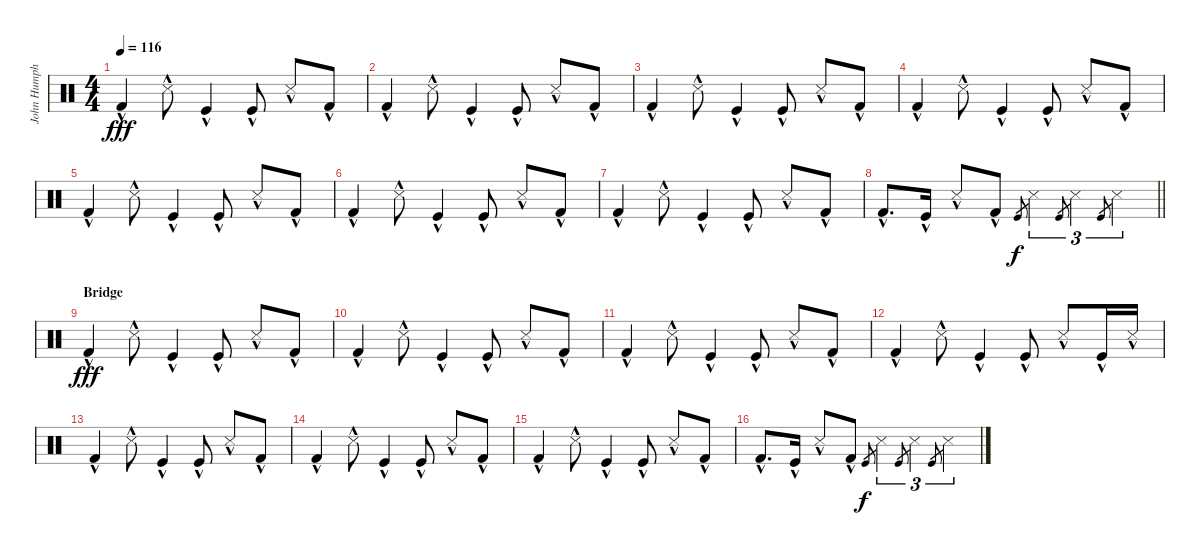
\track ("John Humphrey (Percussions)" "John Humph") {instrument percussion}
\staff {score}
\articulation defaults
\ts (4 4)
\tempo 116
\clef neutral
\ks c "Kick (hit) 2"{hac}.4{dy fff} "Snare (side stick) 3"{hac}.8 "Kick (hit)"{hac}.4 "Kick (hit)"{hac}.8 "Snare (side stick) 3"{hac}.8 "Kick (hit) 2"{hac}.8
|
"Kick (hit) 2"{hac}.4 "Snare (side stick) 3"{hac}.8 "Kick (hit)"{hac}.4 "Kick (hit)"{hac}.8 "Snare (side stick) 3"{hac}.8 "Kick (hit) 2"{hac}.8 |
"Kick (hit) 2"{hac}.4 "Snare (side stick) 3"{hac}.8 "Kick (hit)"{hac}.4 "Kick (hit)"{hac}.8 "Snare (side stick) 3"{hac}.8 "Kick (hit) 2"{hac}.8 |
"Kick (hit) 2"{hac}.4 "Snare (side stick) 3"{hac}.8 "Kick (hit)"{hac}.4 "Kick (hit)"{hac}.8 "Snare (side stick) 3"{hac}.8 "Kick (hit) 2"{hac}.8 |
"Kick (hit) 2"{hac}.4 "Snare (side stick) 3"{hac}.8 "Kick (hit)"{hac}.4 "Kick (hit)"{hac}.8 "Snare (side stick) 3"{hac}.8 "Kick (hit) 2"{hac}.8 |
"Kick (hit) 2"{hac}.4 "Snare (side stick) 3"{hac}.8 "Kick (hit)"{hac}.4 "Kick (hit)"{hac}.8 "Snare (side stick) 3"{hac}.8 "Kick (hit) 2"{hac}.8 |
"Kick (hit) 2"{hac}.4 "Snare (side stick) 3"{hac}.8 "Kick (hit)"{hac}.4 "Kick (hit)"{hac}.8 "Snare (side stick) 3"{hac}.8 "Kick (hit) 2"{hac}.8 |
\barLineRight lightlight "Kick (hit) 2"{hac}.8{d} "Kick (hit)"{hac}.16 "Snare (side stick) 3"{hac}.8 "Kick (hit) 2"{hac}.8 "Kick (hit)".8{gr dy f} "Snare (side stick) 3".4{tu (3 2)} "Kick (hit)".8{gr} "Snare (side stick) 3".4{tu (3 2)} "Kick (hit)".8{gr} "Snare (side stick) 3".4{tu (3 2)}
|
\section ("" "Bridge")
"Kick (hit) 2"{hac}.4{dy fff} "Snare (side stick) 3"{hac}.8 "Kick (hit)"{hac}.4 "Kick (hit)"{hac}.8 "Snare (side stick) 3"{hac}.8 "Kick (hit) 2"{hac}.8 |
"Kick (hit) 2"{hac}.4 "Snare (side stick) 3"{hac}.8 "Kick (hit)"{hac}.4 "Kick (hit)"{hac}.8 "Snare (side stick) 3"{hac}.8 "Kick (hit) 2"{hac}.8 |
"Kick (hit) 2"{hac}.4 "Snare (side stick) 3"{hac}.8 "Kick (hit)"{hac}.4 "Kick (hit)"{hac}.8 "Snare (side stick) 3"{hac}.8 "Kick (hit) 2"{hac}.8 |
"Kick (hit) 2"{hac}.4 "Snare (side stick) 3"{hac}.8 "Kick (hit)"{hac}.4 "Kick (hit)"{hac}.8 "Snare (side stick) 3"{hac}.8 "Kick (hit)"{hac}.16 "Snare (side stick) 3"{hac}.16 |
"Kick (hit) 2"{hac}.4 "Snare (side stick) 3"{hac}.8 "Kick (hit)"{hac}.4 "Kick (hit)"{hac}.8 "Snare (side stick) 3"{hac}.8 "Kick (hit) 2"{hac}.8 |
"Kick (hit) 2"{hac}.4 "Snare (side stick) 3"{hac}.8 "Kick (hit)"{hac}.4 "Kick (hit)"{hac}.8 "Snare (side stick) 3"{hac}.8 "Kick (hit) 2"{hac}.8 |
"Kick (hit) 2"{hac}.4 "Snare (side stick) 3"{hac}.8 "Kick (hit)"{hac}.4 "Kick (hit)"{hac}.8 "Snare (side stick) 3"{hac}.8 "Kick (hit) 2"{hac}.8 |
"Kick (hit) 2"{hac}.8{d} "Kick (hit)"{hac}.16 "Snare (side stick) 3"{hac}.8 "Kick (hit) 2"{hac}.8 "Kick (hit)".8{gr dy f} "Snare (side stick) 3".4{tu (3 2)} "Kick (hit)".8{gr} "Snare (side stick) 3".4{tu (3 2)} "Kick (hit)".8{gr} "Snare (side stick) 3".4{tu (3 2)}
